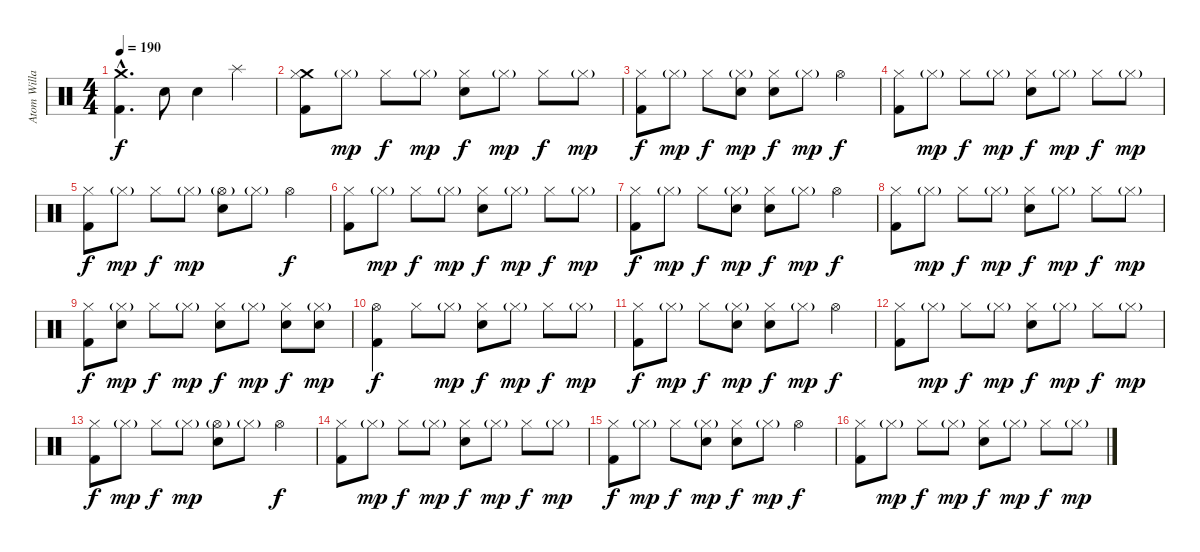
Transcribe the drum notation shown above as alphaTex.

\track ("Atom Willard" "Atom Willa") {instrument percussion}
\staff {score}
\articulation defaults
\ts (4 4)
\tempo 190
\clef neutral
\ks c
("Crash medium (hit)"{hac} "Kick (hit) 2"{hac}).4{d dy f} "Electric Snare (hit)".8 "Electric Snare (hit)".4 "Splash (hit)".4 |
("Crash medium (hit)" "Hi-Hat (closed)" "Kick (hit) 2").8 "Hi-Hat (closed)"{g}.8{dy mp} "Hi-Hat (closed)".8{dy f} "Hi-Hat (closed)"{g}.8{dy mp} ("Hi-Hat (closed)" "Electric Snare (hit)").8{dy f} "Hi-Hat (closed)"{g}.8{dy mp} "Hi-Hat (closed)".8{dy f} "Hi-Hat (closed)"{g}.8{dy mp} |
("Hi-Hat (closed)" "Kick (hit) 2").8{dy f} "Hi-Hat (closed)"{g}.8{dy mp} "Hi-Hat (closed)".8{dy f} ("Hi-Hat (closed)"{g} "Electric Snare (hit)").8{dy mp} ("Hi-Hat (closed)" "Electric Snare (hit)").8{dy f} "Hi-Hat (closed)"{g}.8{dy mp} "Hi-Hat (open)".4{dy f} |
("Hi-Hat (closed)" "Kick (hit) 2").8 "Hi-Hat (closed)"{g}.8{dy mp} "Hi-Hat (closed)".8{dy f} "Hi-Hat (closed)"{g}.8{dy mp} ("Hi-Hat (closed)" "Electric Snare (hit)").8{dy f} "Hi-Hat (closed)"{g}.8{dy mp} "Hi-Hat (closed)".8{dy f} "Hi-Hat (closed)"{g}.8{dy mp} |
("Hi-Hat (closed)" "Kick (hit) 2").8{dy f} "Hi-Hat (closed)"{g}.8{dy mp} "Hi-Hat (closed)".8{dy f} "Hi-Hat (closed)"{g}.8{dy mp} ("Hi-Hat (open)"{g} "Electric Snare (hit)").8 "Hi-Hat (closed)"{g}.8 "Hi-Hat (open)".4{dy f} |
("Hi-Hat (closed)" "Kick (hit) 2").8 "Hi-Hat (closed)"{g}.8{dy mp} "Hi-Hat (closed)".8{dy f} "Hi-Hat (closed)"{g}.8{dy mp} ("Hi-Hat (closed)" "Electric Snare (hit)").8{dy f} "Hi-Hat (closed)"{g}.8{dy mp} "Hi-Hat (closed)".8{dy f} "Hi-Hat (closed)"{g}.8{dy mp} |
("Hi-Hat (closed)" "Kick (hit) 2").8{dy f} "Hi-Hat (closed)"{g}.8{dy mp} "Hi-Hat (closed)".8{dy f} ("Hi-Hat (closed)"{g} "Electric Snare (hit)").8{dy mp} ("Hi-Hat (closed)" "Electric Snare (hit)").8{dy f} "Hi-Hat (closed)"{g}.8{dy mp} "Hi-Hat (open)".4{dy f} |
("Hi-Hat (closed)" "Kick (hit) 2").8 "Hi-Hat (closed)"{g}.8{dy mp} "Hi-Hat (closed)".8{dy f} "Hi-Hat (closed)"{g}.8{dy mp} ("Hi-Hat (closed)" "Electric Snare (hit)").8{dy f} "Hi-Hat (closed)"{g}.8{dy mp} "Hi-Hat (closed)".8{dy f} "Hi-Hat (closed)"{g}.8{dy mp} |
("Hi-Hat (closed)" "Kick (hit) 2").8{dy f} ("Hi-Hat (closed)"{g} "Electric Snare (hit)").8{dy mp} "Hi-Hat (closed)".8{dy f} "Hi-Hat (closed)"{g}.8{dy mp} ("Hi-Hat (closed)" "Electric Snare (hit)").8{dy f} "Hi-Hat (closed)"{g}.8{dy mp} ("Hi-Hat (closed)" "Electric Snare (hit)").8{dy f} ("Hi-Hat (closed)"{g} "Electric Snare (hit)").8{dy mp} |
("Hi-Hat (open)" "Kick (hit) 2").4{dy f} "Hi-Hat (closed)".8 "Hi-Hat (closed)"{g}.8{dy mp} ("Hi-Hat (closed)" "Electric Snare (hit)").8{dy f} "Hi-Hat (closed)"{g}.8{dy mp} "Hi-Hat (closed)".8{dy f} "Hi-Hat (closed)"{g}.8{dy mp} |
("Hi-Hat (closed)" "Kick (hit) 2").8{dy f} "Hi-Hat (closed)"{g}.8{dy mp} "Hi-Hat (closed)".8{dy f} ("Hi-Hat (closed)"{g} "Electric Snare (hit)").8{dy mp} ("Hi-Hat (closed)" "Electric Snare (hit)").8{dy f} "Hi-Hat (closed)"{g}.8{dy mp} "Hi-Hat (open)".4{dy f} |
("Hi-Hat (closed)" "Kick (hit) 2").8 "Hi-Hat (closed)"{g}.8{dy mp} "Hi-Hat (closed)".8{dy f} "Hi-Hat (closed)"{g}.8{dy mp} ("Hi-Hat (closed)" "Electric Snare (hit)").8{dy f} "Hi-Hat (closed)"{g}.8{dy mp} "Hi-Hat (closed)".8{dy f} "Hi-Hat (closed)"{g}.8{dy mp} |
("Hi-Hat (closed)" "Kick (hit) 2").8{dy f} "Hi-Hat (closed)"{g}.8{dy mp} "Hi-Hat (closed)".8{dy f} "Hi-Hat (closed)"{g}.8{dy mp} ("Hi-Hat (open)"{g} "Electric Snare (hit)").8 "Hi-Hat (closed)"{g}.8 "Hi-Hat (open)".4{dy f} |
("Hi-Hat (closed)" "Kick (hit) 2").8 "Hi-Hat (closed)"{g}.8{dy mp} "Hi-Hat (closed)".8{dy f} "Hi-Hat (closed)"{g}.8{dy mp} ("Hi-Hat (closed)" "Electric Snare (hit)").8{dy f} "Hi-Hat (closed)"{g}.8{dy mp} "Hi-Hat (closed)".8{dy f} "Hi-Hat (closed)"{g}.8{dy mp} |
("Hi-Hat (closed)" "Kick (hit) 2").8{dy f} "Hi-Hat (closed)"{g}.8{dy mp} "Hi-Hat (closed)".8{dy f} ("Hi-Hat (closed)"{g} "Electric Snare (hit)").8{dy mp} ("Hi-Hat (closed)" "Electric Snare (hit)").8{dy f} "Hi-Hat (closed)"{g}.8{dy mp} "Hi-Hat (open)".4{dy f} |
("Hi-Hat (closed)" "Kick (hit) 2").8 "Hi-Hat (closed)"{g}.8{dy mp} "Hi-Hat (closed)".8{dy f} "Hi-Hat (closed)"{g}.8{dy mp} ("Hi-Hat (closed)" "Electric Snare (hit)").8{dy f} "Hi-Hat (closed)"{g}.8{dy mp} "Hi-Hat (closed)".8{dy f} "Hi-Hat (closed)"{g}.8{dy mp}
